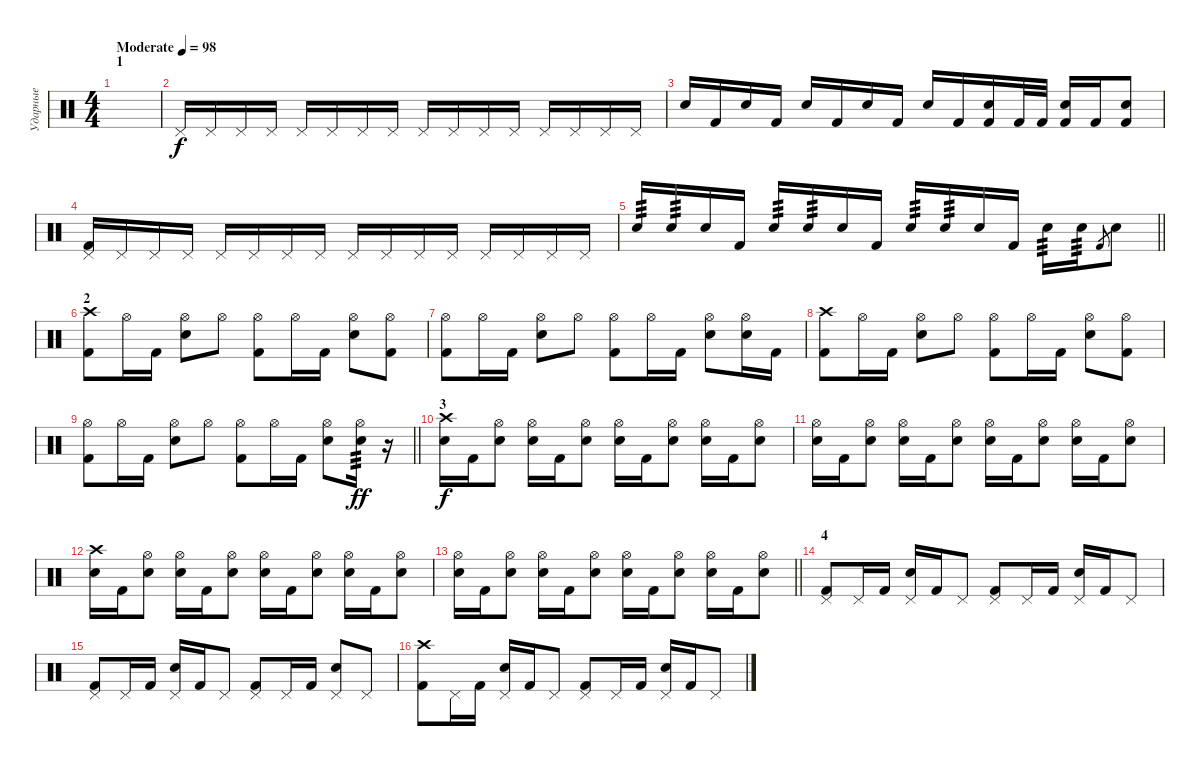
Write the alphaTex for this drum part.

\track ("Ударные" "Ударные") {instrument percussion}
\staff {score}
\articulation defaults
\ts (4 4)
\section ("" "1")
\tempo (98 "Moderate")
\clef neutral
\ks c
|
"Pedal Hi-Hat (hit)".16 "Pedal Hi-Hat (hit)".16 "Pedal Hi-Hat (hit)".16 "Pedal Hi-Hat (hit)".16 "Pedal Hi-Hat (hit)".16 "Pedal Hi-Hat (hit)".16 "Pedal Hi-Hat (hit)".16 "Pedal Hi-Hat (hit)".16 "Pedal Hi-Hat (hit)".16 "Pedal Hi-Hat (hit)".16 "Pedal Hi-Hat (hit)".16 "Pedal Hi-Hat (hit)".16 "Pedal Hi-Hat (hit)".16 "Pedal Hi-Hat (hit)".16 "Pedal Hi-Hat (hit)".16 "Pedal Hi-Hat (hit)".16 |
"Electric Snare (hit)".16 "Kick (hit) 2".16 "Electric Snare (hit)".16 "Kick (hit) 2".16 "Electric Snare (hit)".16 "Kick (hit) 2".16 "Electric Snare (hit)".16 "Kick (hit) 2".16 "Electric Snare (hit)".16 "Kick (hit) 2".16 ("Kick (hit) 2" "Electric Snare (hit)").16 "Kick (hit) 2".32 "Kick (hit) 2".32 ("Kick (hit) 2" "Electric Snare (hit)").16 "Kick (hit) 2".16 ("Kick (hit) 2" "Electric Snare (hit)").8 |
("Pedal Hi-Hat (hit)" "Kick (hit) 2").16 "Pedal Hi-Hat (hit)".16 "Pedal Hi-Hat (hit)".16 "Pedal Hi-Hat (hit)".16 "Pedal Hi-Hat (hit)".16 "Pedal Hi-Hat (hit)".16 "Pedal Hi-Hat (hit)".16 "Pedal Hi-Hat (hit)".16 "Pedal Hi-Hat (hit)".16 "Pedal Hi-Hat (hit)".16 "Pedal Hi-Hat (hit)".16 "Pedal Hi-Hat (hit)".16 "Pedal Hi-Hat (hit)".16 "Pedal Hi-Hat (hit)".16 "Pedal Hi-Hat (hit)".16 "Pedal Hi-Hat (hit)".16 |
\barLineRight lightlight "Electric Snare (hit)".16{tp 3} "Electric Snare (hit)".16{tp 3} "Electric Snare (hit)".16 "Kick (hit) 2".16 "Electric Snare (hit)".16{tp 3} "Electric Snare (hit)".16{tp 3} "Electric Snare (hit)".16 "Kick (hit) 2".16 "Electric Snare (hit)".16{tp 3} "Electric Snare (hit)".16{tp 3} "Electric Snare (hit)".16 "Kick (hit) 2".16 "Electric Snare (hit)".16{tp 3} "Electric Snare (hit)".16{tp 3} "Kick (hit) 2".8{gr} "Electric Snare (hit)".8
|
\section ("" "2")
("Crash high (hit)" "Kick (hit) 2").8 "Hi-Hat (open)".16 "Kick (hit) 2".16 ("Hi-Hat (open)" "Electric Snare (hit)").8 "Hi-Hat (open)".8 ("Hi-Hat (open)" "Kick (hit) 2").8 "Hi-Hat (open)".16 "Kick (hit) 2".16 ("Hi-Hat (open)" "Electric Snare (hit)").8 ("Hi-Hat (open)" "Kick (hit) 2").8 |
("Hi-Hat (open)" "Kick (hit) 2").8 "Hi-Hat (open)".16 "Kick (hit) 2".16 ("Hi-Hat (open)" "Electric Snare (hit)").8 "Hi-Hat (open)".8 ("Hi-Hat (open)" "Kick (hit) 2").8 "Hi-Hat (open)".16 "Kick (hit) 2".16 ("Hi-Hat (open)" "Electric Snare (hit)").8 ("Hi-Hat (open)" "Electric Snare (hit)").16 "Kick (hit) 2".16 |
("Crash high (hit)" "Kick (hit) 2").8 "Hi-Hat (open)".16 "Kick (hit) 2".16 ("Hi-Hat (open)" "Electric Snare (hit)").8 "Hi-Hat (open)".8 ("Hi-Hat (open)" "Kick (hit) 2").8 "Hi-Hat (open)".16 "Kick (hit) 2".16 ("Hi-Hat (open)" "Electric Snare (hit)").8 ("Hi-Hat (open)" "Kick (hit) 2").8 |
\barLineRight lightlight
("Hi-Hat (open)" "Kick (hit) 2").8 "Hi-Hat (open)".16 "Kick (hit) 2".16 ("Hi-Hat (open)" "Electric Snare (hit)").8 "Hi-Hat (open)".8 ("Hi-Hat (open)" "Kick (hit) 2").8 "Hi-Hat (open)".16 "Kick (hit) 2".16 ("Hi-Hat (open)" "Electric Snare (hit)").8 ("Hi-Hat (open)" "Electric Snare (hit)").16{tp 3 dy ff} r.16 |
\section ("" "3")
("Electric Snare (hit)" "Crash high (hit)").16{dy f} "Kick (hit) 2".16 ("Electric Snare (hit)" "Hi-Hat (open)").8 ("Electric Snare (hit)" "Hi-Hat (open)").16 "Kick (hit) 2".16 ("Electric Snare (hit)" "Hi-Hat (open)").8 ("Electric Snare (hit)" "Hi-Hat (open)").16 "Kick (hit) 2".16 ("Electric Snare (hit)" "Hi-Hat (open)").8 ("Electric Snare (hit)" "Hi-Hat (open)").16 "Kick (hit) 2".16 ("Electric Snare (hit)" "Hi-Hat (open)").8 |
("Electric Snare (hit)" "Hi-Hat (open)").16 "Kick (hit) 2".16 ("Electric Snare (hit)" "Hi-Hat (open)").8 ("Electric Snare (hit)" "Hi-Hat (open)").16 "Kick (hit) 2".16 ("Electric Snare (hit)" "Hi-Hat (open)").8 ("Electric Snare (hit)" "Hi-Hat (open)").16 "Kick (hit) 2".16 ("Electric Snare (hit)" "Hi-Hat (open)").8 ("Electric Snare (hit)" "Hi-Hat (open)").16 "Kick (hit) 2".16 ("Electric Snare (hit)" "Hi-Hat (open)").8 |
("Electric Snare (hit)" "Crash high (hit)").16 "Kick (hit) 2".16 ("Electric Snare (hit)" "Hi-Hat (open)").8 ("Electric Snare (hit)" "Hi-Hat (open)").16 "Kick (hit) 2".16 ("Electric Snare (hit)" "Hi-Hat (open)").8 ("Electric Snare (hit)" "Hi-Hat (open)").16 "Kick (hit) 2".16 ("Electric Snare (hit)" "Hi-Hat (open)").8 ("Electric Snare (hit)" "Hi-Hat (open)").16 "Kick (hit) 2".16 ("Electric Snare (hit)" "Hi-Hat (open)").8 |
\barLineRight lightlight
("Electric Snare (hit)" "Hi-Hat (open)").16 "Kick (hit) 2".16 ("Electric Snare (hit)" "Hi-Hat (open)").8 ("Electric Snare (hit)" "Hi-Hat (open)").16 "Kick (hit) 2".16 ("Electric Snare (hit)" "Hi-Hat (open)").8 ("Electric Snare (hit)" "Hi-Hat (open)").16 "Kick (hit) 2".16 ("Electric Snare (hit)" "Hi-Hat (open)").8 ("Electric Snare (hit)" "Hi-Hat (open)").16 "Kick (hit) 2".16 ("Electric Snare (hit)" "Hi-Hat (open)").8 |
\section ("" "4")
("Kick (hit) 2" "Pedal Hi-Hat (hit)").8 "Pedal Hi-Hat (hit)".16 "Kick (hit) 2".16 ("Electric Snare (hit)" "Pedal Hi-Hat (hit)").16 "Kick (hit) 2".16 "Pedal Hi-Hat (hit)".8 ("Kick (hit) 2" "Pedal Hi-Hat (hit)").8 "Pedal Hi-Hat (hit)".16 "Kick (hit) 2".16 ("Electric Snare (hit)" "Pedal Hi-Hat (hit)").16 "Kick (hit) 2".16 "Pedal Hi-Hat (hit)".8 |
("Kick (hit) 2" "Pedal Hi-Hat (hit)").8 "Pedal Hi-Hat (hit)".16 "Kick (hit) 2".16 ("Electric Snare (hit)" "Pedal Hi-Hat (hit)").16 "Kick (hit) 2".16 "Pedal Hi-Hat (hit)".8 ("Kick (hit) 2" "Pedal Hi-Hat (hit)").8 "Pedal Hi-Hat (hit)".16 "Kick (hit) 2".16 ("Electric Snare (hit)" "Pedal Hi-Hat (hit)").8 "Pedal Hi-Hat (hit)".8 |
("Kick (hit) 2" "Crash high (hit)").8 "Pedal Hi-Hat (hit)".16 "Kick (hit) 2".16 ("Electric Snare (hit)" "Pedal Hi-Hat (hit)").16 "Kick (hit) 2".16 "Pedal Hi-Hat (hit)".8 ("Kick (hit) 2" "Pedal Hi-Hat (hit)").8 "Pedal Hi-Hat (hit)".16 "Kick (hit) 2".16 ("Electric Snare (hit)" "Pedal Hi-Hat (hit)").16 "Kick (hit) 2".16 "Pedal Hi-Hat (hit)".8
